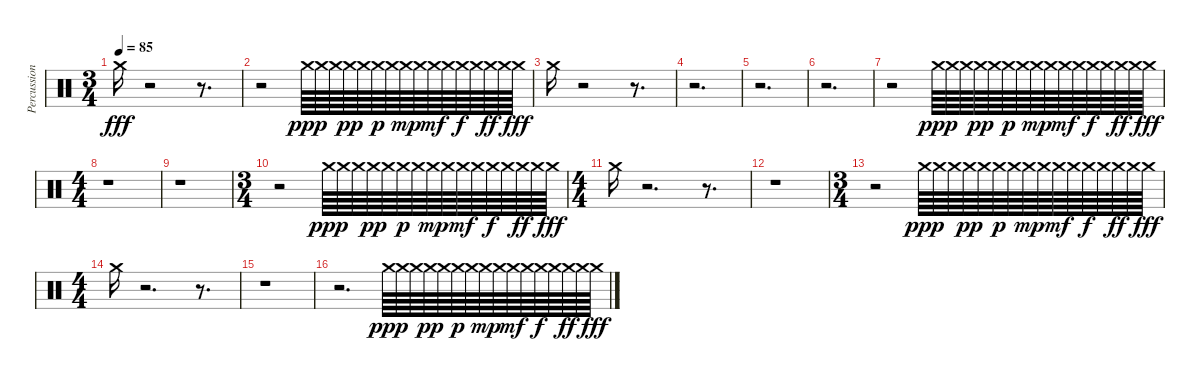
\track ("Percussion" "Percussion") {instrument percussion}
\staff {score}
\articulation defaults
\ts (3 4)
\tempo 85
\clef neutral
\ks c "Crash medium (hit)".16{dy fff}
r.2 r.8{d} |
r.2 "Crash medium (hit)".64{dy ppp} "Crash medium (hit)".64 "Crash medium (hit)".64 "Crash medium (hit)".64{dy pp} "Crash medium (hit)".64 "Crash medium (hit)".64{dy p} "Crash medium (hit)".64 "Crash medium (hit)".64{dy mp} "Crash medium (hit)".64 "Crash medium (hit)".64{dy mf} "Crash medium (hit)".64 "Crash medium (hit)".64{dy f} "Crash medium (hit)".64 "Crash medium (hit)".64{dy ff} "Crash medium (hit)".64 "Crash medium (hit)".64{dy fff} |
"Crash medium (hit)".16 r.2 r.8{d} |
r.2{d} |
r.2{d} |
r.2{d} |
r.2 "Crash medium (hit)".64{dy ppp} "Crash medium (hit)".64 "Crash medium (hit)".64 "Crash medium (hit)".64{dy pp} "Crash medium (hit)".64 "Crash medium (hit)".64{dy p} "Crash medium (hit)".64 "Crash medium (hit)".64{dy mp} "Crash medium (hit)".64 "Crash medium (hit)".64{dy mf} "Crash medium (hit)".64 "Crash medium (hit)".64{dy f} "Crash medium (hit)".64 "Crash medium (hit)".64{dy ff} "Crash medium (hit)".64 "Crash medium (hit)".64{dy fff} |
\ts (4 4)
r.1 |
r.1 |
\ts (3 4)
r.2 "Crash medium (hit)".64{dy ppp} "Crash medium (hit)".64 "Crash medium (hit)".64 "Crash medium (hit)".64{dy pp} "Crash medium (hit)".64 "Crash medium (hit)".64{dy p} "Crash medium (hit)".64 "Crash medium (hit)".64{dy mp} "Crash medium (hit)".64 "Crash medium (hit)".64{dy mf} "Crash medium (hit)".64 "Crash medium (hit)".64{dy f} "Crash medium (hit)".64 "Crash medium (hit)".64{dy ff} "Crash medium (hit)".64 "Crash medium (hit)".64{dy fff} |
\ts (4 4)
"Crash medium (hit)".16 r.2{d} r.8{d} |
r.1 |
\ts (3 4)
r.2 "Crash medium (hit)".64{dy ppp} "Crash medium (hit)".64 "Crash medium (hit)".64 "Crash medium (hit)".64{dy pp} "Crash medium (hit)".64 "Crash medium (hit)".64{dy p} "Crash medium (hit)".64 "Crash medium (hit)".64{dy mp} "Crash medium (hit)".64 "Crash medium (hit)".64{dy mf} "Crash medium (hit)".64 "Crash medium (hit)".64{dy f} "Crash medium (hit)".64 "Crash medium (hit)".64{dy ff} "Crash medium (hit)".64 "Crash medium (hit)".64{dy fff} |
\ts (4 4)
"Crash medium (hit)".16 r.2{d} r.8{d} |
r.1 |
r.2{d} "Crash medium (hit)".64{dy ppp} "Crash medium (hit)".64 "Crash medium (hit)".64 "Crash medium (hit)".64{dy pp} "Crash medium (hit)".64 "Crash medium (hit)".64{dy p} "Crash medium (hit)".64 "Crash medium (hit)".64{dy mp} "Crash medium (hit)".64 "Crash medium (hit)".64{dy mf} "Crash medium (hit)".64 "Crash medium (hit)".64{dy f} "Crash medium (hit)".64 "Crash medium (hit)".64{dy ff} "Crash medium (hit)".64 "Crash medium (hit)".64{dy fff}
